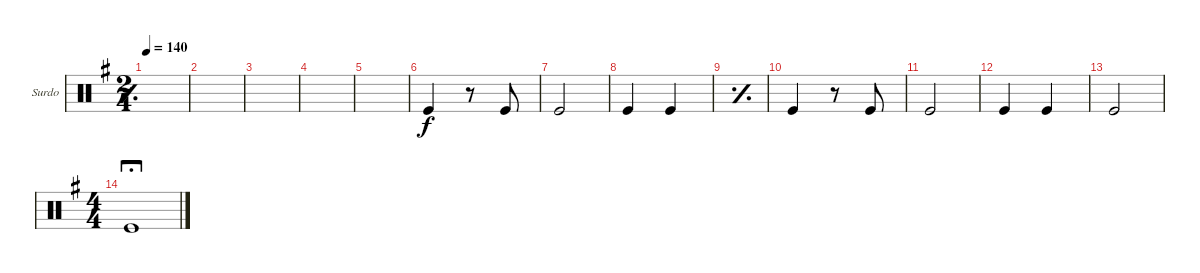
\defaultSystemsLayout 4
\bracketExtendMode groupsimilarinstruments
\firstSystemTrackNameOrientation horizontal
\otherSystemsTrackNameOrientation horizontal
\track ("Surdo" "Surdo") {instrument percussion}
\staff {score}
\articulation defaults
\ts (2 4)
\tempo 140
\clef neutral
\simile simple
\ks g
|
|
|
|
|
\simile none "Kick (hit)".4
r.8 "Kick (hit)".8 |
"Kick (hit)".2 |
"Kick (hit)".4 "Kick (hit)".4 |
\simile simple
|
\simile none "Kick (hit)".4
r.8 "Kick (hit)".8 |
"Kick (hit)".2 |
"Kick (hit)".4 "Kick (hit)".4 |
"Kick (hit)".2 |
\ts (4 4)
"Kick (hit)".1{fermata (long 1)}
